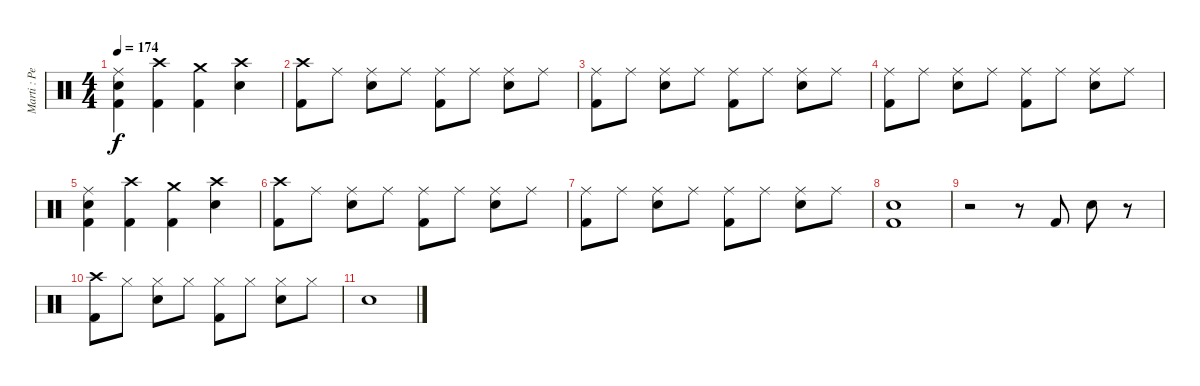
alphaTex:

\track ("Marti : Percussion" "Marti : Pe") {instrument percussion}
\staff {score}
\articulation defaults
\ts (4 4)
\tempo 174
\clef neutral
\ks c
("Kick (hit) 2" "Electric Snare (hit)" "Ride (middle)").4{dy f} ("Kick (hit) 2" "Crash high (hit)").4 ("Kick (hit) 2" "Crash medium (hit)").4 ("Electric Snare (hit)" "Crash high (hit)").4 |
("Kick (hit) 2" "Crash high (hit)").8 "Ride (middle)".8 ("Electric Snare (hit)" "Ride (middle)").8 "Ride (middle)".8 ("Kick (hit) 2" "Ride (middle)").8 "Ride (middle)".8 ("Electric Snare (hit)" "Ride (middle)").8 "Ride (middle)".8 |
("Kick (hit) 2" "Ride (middle)").8 "Ride (middle)".8 ("Electric Snare (hit)" "Ride (middle)").8 "Ride (middle)".8 ("Kick (hit) 2" "Ride (middle)").8 "Ride (middle)".8 ("Electric Snare (hit)" "Ride (middle)").8 "Ride (middle)".8 |
("Kick (hit) 2" "Ride (middle)").8 "Ride (middle)".8 ("Electric Snare (hit)" "Ride (middle)").8 "Ride (middle)".8 ("Kick (hit) 2" "Ride (middle)").8 "Ride (middle)".8 ("Electric Snare (hit)" "Ride (middle)").8 "Ride (middle)".8 |
("Kick (hit) 2" "Electric Snare (hit)" "Ride (middle)").4 ("Kick (hit) 2" "Crash high (hit)").4 ("Kick (hit) 2" "Crash medium (hit)").4 ("Electric Snare (hit)" "Crash high (hit)").4 |
("Kick (hit) 2" "Crash high (hit)").8 "Ride (middle)".8 ("Electric Snare (hit)" "Ride (middle)").8 "Ride (middle)".8 ("Kick (hit) 2" "Ride (middle)").8 "Ride (middle)".8 ("Electric Snare (hit)" "Ride (middle)").8 "Ride (middle)".8 |
("Kick (hit) 2" "Ride (middle)").8 "Ride (middle)".8 ("Electric Snare (hit)" "Ride (middle)").8 "Ride (middle)".8 ("Kick (hit) 2" "Ride (middle)").8 "Ride (middle)".8 ("Electric Snare (hit)" "Ride (middle)").8 "Ride (middle)".8 |
("Electric Snare (hit)" "Kick (hit) 2").1 |
r.2 r.8 "Kick (hit) 2".8 "Electric Snare (hit)".8 r.8 |
("Kick (hit) 2" "Crash high (hit)").8 "Hi-Hat (closed)".8 ("Electric Snare (hit)" "Hi-Hat (closed)").8 "Hi-Hat (closed)".8 ("Kick (hit) 2" "Hi-Hat (closed)").8 "Hi-Hat (closed)".8 ("Electric Snare (hit)" "Hi-Hat (closed)").8 "Hi-Hat (closed)".8 |
"Electric Snare (hit)".1
